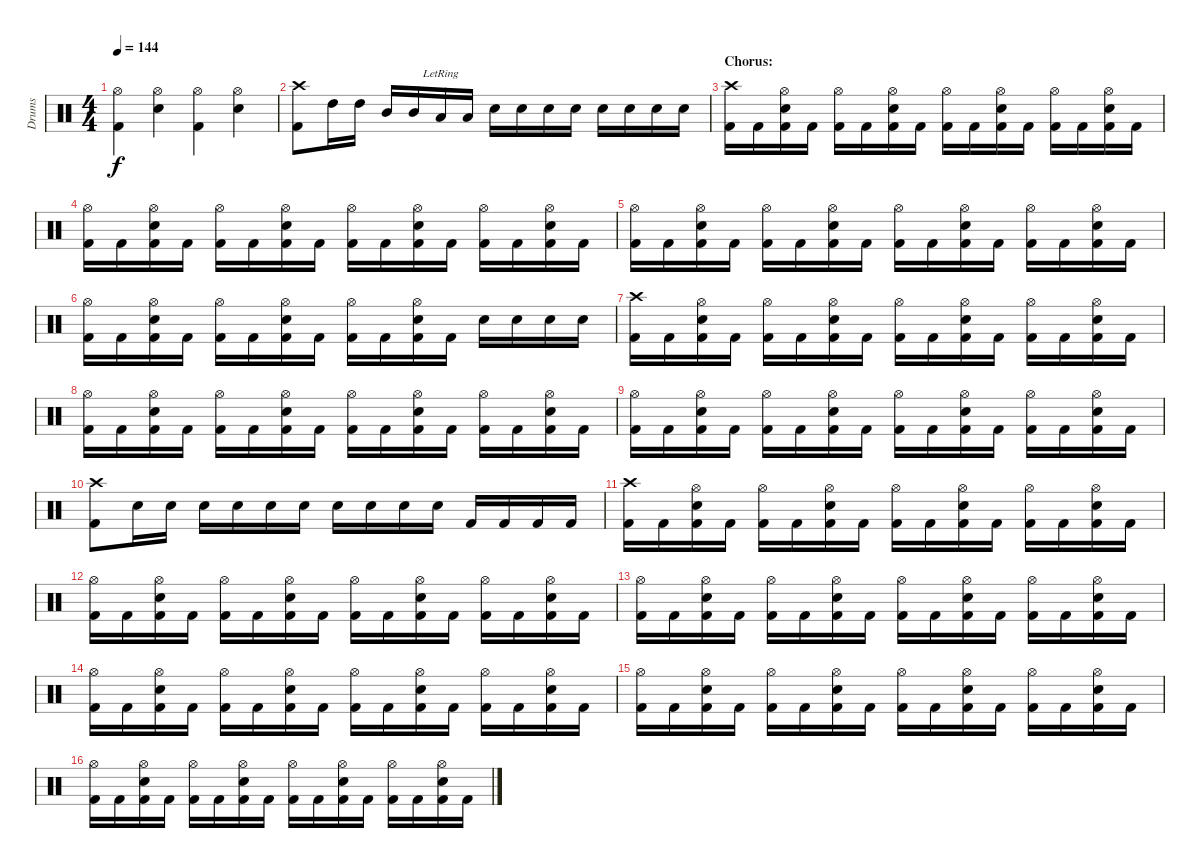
\track ("Drums" "Drums") {instrument percussion}
\staff {score}
\articulation defaults
\ts (4 4)
\tempo 144
\clef neutral
\ks c
("Hi-Hat (open)" "Kick (hit) 2").4{dy f} ("Hi-Hat (open)" "Snare (hit) 2").4 ("Hi-Hat (open)" "Kick (hit) 2").4 ("Hi-Hat (open)" "Snare (hit) 2").4 |
("Crash high (hit)" "Kick (hit) 2").8 "High Tom (hit)".16 "High Tom (hit)".16 "Mid Tom (hit)".16 "Mid Tom (hit)".16 "Low Tom (hit)"{lr}.16 "Low Tom (hit)".16 "Snare (hit) 2".16 "Snare (hit) 2".16 "Snare (hit) 2".16 "Snare (hit) 2".16 "Snare (hit) 2".16 "Snare (hit) 2".16 "Snare (hit) 2".16 "Snare (hit) 2".16 |
\section ("" "Chorus:")
("Crash high (hit)" "Kick (hit) 2").16 "Kick (hit) 2".16 ("Hi-Hat (open)" "Snare (hit) 2" "Kick (hit) 2").16 "Kick (hit) 2".16 ("Hi-Hat (open)" "Kick (hit) 2").16 "Kick (hit) 2".16 ("Hi-Hat (open)" "Snare (hit) 2" "Kick (hit) 2").16 "Kick (hit) 2".16 ("Hi-Hat (open)" "Kick (hit) 2").16 "Kick (hit) 2".16 ("Hi-Hat (open)" "Snare (hit) 2" "Kick (hit) 2").16 "Kick (hit) 2".16 ("Hi-Hat (open)" "Kick (hit) 2").16 "Kick (hit) 2".16 ("Hi-Hat (open)" "Snare (hit) 2" "Kick (hit) 2").16 "Kick (hit) 2".16 |
("Hi-Hat (open)" "Kick (hit) 2").16 "Kick (hit) 2".16 ("Hi-Hat (open)" "Snare (hit) 2" "Kick (hit) 2").16 "Kick (hit) 2".16 ("Hi-Hat (open)" "Kick (hit) 2").16 "Kick (hit) 2".16 ("Hi-Hat (open)" "Snare (hit) 2" "Kick (hit) 2").16 "Kick (hit) 2".16 ("Hi-Hat (open)" "Kick (hit) 2").16 "Kick (hit) 2".16 ("Hi-Hat (open)" "Snare (hit) 2" "Kick (hit) 2").16 "Kick (hit) 2".16 ("Hi-Hat (open)" "Kick (hit) 2").16 "Kick (hit) 2".16 ("Hi-Hat (open)" "Snare (hit) 2" "Kick (hit) 2").16 "Kick (hit) 2".16 |
("Hi-Hat (open)" "Kick (hit) 2").16 "Kick (hit) 2".16 ("Hi-Hat (open)" "Snare (hit) 2" "Kick (hit) 2").16 "Kick (hit) 2".16 ("Hi-Hat (open)" "Kick (hit) 2").16 "Kick (hit) 2".16 ("Hi-Hat (open)" "Snare (hit) 2" "Kick (hit) 2").16 "Kick (hit) 2".16 ("Hi-Hat (open)" "Kick (hit) 2").16 "Kick (hit) 2".16 ("Hi-Hat (open)" "Snare (hit) 2" "Kick (hit) 2").16 "Kick (hit) 2".16 ("Hi-Hat (open)" "Kick (hit) 2").16 "Kick (hit) 2".16 ("Hi-Hat (open)" "Snare (hit) 2" "Kick (hit) 2").16 "Kick (hit) 2".16 |
("Hi-Hat (open)" "Kick (hit) 2").16 "Kick (hit) 2".16 ("Hi-Hat (open)" "Snare (hit) 2" "Kick (hit) 2").16 "Kick (hit) 2".16 ("Hi-Hat (open)" "Kick (hit) 2").16 "Kick (hit) 2".16 ("Hi-Hat (open)" "Snare (hit) 2" "Kick (hit) 2").16 "Kick (hit) 2".16 ("Hi-Hat (open)" "Kick (hit) 2").16 "Kick (hit) 2".16 ("Hi-Hat (open)" "Snare (hit) 2" "Kick (hit) 2").16 "Kick (hit) 2".16 "Snare (hit) 2".16 "Snare (hit) 2".16 "Snare (hit) 2".16 "Snare (hit) 2".16 |
("Crash high (hit)" "Kick (hit) 2").16 "Kick (hit) 2".16 ("Hi-Hat (open)" "Snare (hit) 2" "Kick (hit) 2").16 "Kick (hit) 2".16 ("Hi-Hat (open)" "Kick (hit) 2").16 "Kick (hit) 2".16 ("Hi-Hat (open)" "Snare (hit) 2" "Kick (hit) 2").16 "Kick (hit) 2".16 ("Hi-Hat (open)" "Kick (hit) 2").16 "Kick (hit) 2".16 ("Hi-Hat (open)" "Snare (hit) 2" "Kick (hit) 2").16 "Kick (hit) 2".16 ("Hi-Hat (open)" "Kick (hit) 2").16 "Kick (hit) 2".16 ("Hi-Hat (open)" "Snare (hit) 2" "Kick (hit) 2").16 "Kick (hit) 2".16 |
("Hi-Hat (open)" "Kick (hit) 2").16 "Kick (hit) 2".16 ("Hi-Hat (open)" "Snare (hit) 2" "Kick (hit) 2").16 "Kick (hit) 2".16 ("Hi-Hat (open)" "Kick (hit) 2").16 "Kick (hit) 2".16 ("Hi-Hat (open)" "Snare (hit) 2" "Kick (hit) 2").16 "Kick (hit) 2".16 ("Hi-Hat (open)" "Kick (hit) 2").16 "Kick (hit) 2".16 ("Hi-Hat (open)" "Snare (hit) 2" "Kick (hit) 2").16 "Kick (hit) 2".16 ("Hi-Hat (open)" "Kick (hit) 2").16 "Kick (hit) 2".16 ("Hi-Hat (open)" "Snare (hit) 2" "Kick (hit) 2").16 "Kick (hit) 2".16 |
("Hi-Hat (open)" "Kick (hit) 2").16 "Kick (hit) 2".16 ("Hi-Hat (open)" "Snare (hit) 2" "Kick (hit) 2").16 "Kick (hit) 2".16 ("Hi-Hat (open)" "Kick (hit) 2").16 "Kick (hit) 2".16 ("Hi-Hat (open)" "Snare (hit) 2" "Kick (hit) 2").16 "Kick (hit) 2".16 ("Hi-Hat (open)" "Kick (hit) 2").16 "Kick (hit) 2".16 ("Hi-Hat (open)" "Snare (hit) 2" "Kick (hit) 2").16 "Kick (hit) 2".16 ("Hi-Hat (open)" "Kick (hit) 2").16 "Kick (hit) 2".16 ("Hi-Hat (open)" "Snare (hit) 2" "Kick (hit) 2").16 "Kick (hit) 2".16 |
("Crash high (hit)" "Kick (hit) 2").8 "Snare (hit) 2".16 "Snare (hit) 2".16 "Snare (hit) 2".16 "Snare (hit) 2".16 "Snare (hit) 2".16 "Snare (hit) 2".16 "Snare (hit) 2".16 "Snare (hit) 2".16 "Snare (hit) 2".16 "Snare (hit) 2".16 "Kick (hit) 2".16 "Kick (hit) 2".16 "Kick (hit) 2".16 "Kick (hit) 2".16 |
("Crash high (hit)" "Kick (hit) 2").16 "Kick (hit) 2".16 ("Hi-Hat (open)" "Snare (hit) 2" "Kick (hit) 2").16 "Kick (hit) 2".16 ("Hi-Hat (open)" "Kick (hit) 2").16 "Kick (hit) 2".16 ("Hi-Hat (open)" "Snare (hit) 2" "Kick (hit) 2").16 "Kick (hit) 2".16 ("Hi-Hat (open)" "Kick (hit) 2").16 "Kick (hit) 2".16 ("Hi-Hat (open)" "Snare (hit) 2" "Kick (hit) 2").16 "Kick (hit) 2".16 ("Hi-Hat (open)" "Kick (hit) 2").16 "Kick (hit) 2".16 ("Hi-Hat (open)" "Snare (hit) 2" "Kick (hit) 2").16 "Kick (hit) 2".16 |
("Hi-Hat (open)" "Kick (hit) 2").16 "Kick (hit) 2".16 ("Hi-Hat (open)" "Snare (hit) 2" "Kick (hit) 2").16 "Kick (hit) 2".16 ("Hi-Hat (open)" "Kick (hit) 2").16 "Kick (hit) 2".16 ("Hi-Hat (open)" "Snare (hit) 2" "Kick (hit) 2").16 "Kick (hit) 2".16 ("Hi-Hat (open)" "Kick (hit) 2").16 "Kick (hit) 2".16 ("Hi-Hat (open)" "Snare (hit) 2" "Kick (hit) 2").16 "Kick (hit) 2".16 ("Hi-Hat (open)" "Kick (hit) 2").16 "Kick (hit) 2".16 ("Hi-Hat (open)" "Snare (hit) 2" "Kick (hit) 2").16 "Kick (hit) 2".16 |
("Hi-Hat (open)" "Kick (hit) 2").16 "Kick (hit) 2".16 ("Hi-Hat (open)" "Snare (hit) 2" "Kick (hit) 2").16 "Kick (hit) 2".16 ("Hi-Hat (open)" "Kick (hit) 2").16 "Kick (hit) 2".16 ("Hi-Hat (open)" "Snare (hit) 2" "Kick (hit) 2").16 "Kick (hit) 2".16 ("Hi-Hat (open)" "Kick (hit) 2").16 "Kick (hit) 2".16 ("Hi-Hat (open)" "Snare (hit) 2" "Kick (hit) 2").16 "Kick (hit) 2".16 ("Hi-Hat (open)" "Kick (hit) 2").16 "Kick (hit) 2".16 ("Hi-Hat (open)" "Snare (hit) 2" "Kick (hit) 2").16 "Kick (hit) 2".16 |
("Hi-Hat (open)" "Kick (hit) 2").16 "Kick (hit) 2".16 ("Hi-Hat (open)" "Snare (hit) 2" "Kick (hit) 2").16 "Kick (hit) 2".16 ("Hi-Hat (open)" "Kick (hit) 2").16 "Kick (hit) 2".16 ("Hi-Hat (open)" "Snare (hit) 2" "Kick (hit) 2").16 "Kick (hit) 2".16 ("Hi-Hat (open)" "Kick (hit) 2").16 "Kick (hit) 2".16 ("Hi-Hat (open)" "Snare (hit) 2" "Kick (hit) 2").16 "Kick (hit) 2".16 ("Hi-Hat (open)" "Kick (hit) 2").16 "Kick (hit) 2".16 ("Hi-Hat (open)" "Snare (hit) 2" "Kick (hit) 2").16 "Kick (hit) 2".16 |
("Hi-Hat (open)" "Kick (hit) 2").16 "Kick (hit) 2".16 ("Hi-Hat (open)" "Snare (hit) 2" "Kick (hit) 2").16 "Kick (hit) 2".16 ("Hi-Hat (open)" "Kick (hit) 2").16 "Kick (hit) 2".16 ("Hi-Hat (open)" "Snare (hit) 2" "Kick (hit) 2").16 "Kick (hit) 2".16 ("Hi-Hat (open)" "Kick (hit) 2").16 "Kick (hit) 2".16 ("Hi-Hat (open)" "Snare (hit) 2" "Kick (hit) 2").16 "Kick (hit) 2".16 ("Hi-Hat (open)" "Kick (hit) 2").16 "Kick (hit) 2".16 ("Hi-Hat (open)" "Snare (hit) 2" "Kick (hit) 2").16 "Kick (hit) 2".16 |
("Hi-Hat (open)" "Kick (hit) 2").16 "Kick (hit) 2".16 ("Hi-Hat (open)" "Snare (hit) 2" "Kick (hit) 2").16 "Kick (hit) 2".16 ("Hi-Hat (open)" "Kick (hit) 2").16 "Kick (hit) 2".16 ("Hi-Hat (open)" "Snare (hit) 2" "Kick (hit) 2").16 "Kick (hit) 2".16 ("Hi-Hat (open)" "Kick (hit) 2").16 "Kick (hit) 2".16 ("Hi-Hat (open)" "Snare (hit) 2" "Kick (hit) 2").16 "Kick (hit) 2".16 ("Hi-Hat (open)" "Kick (hit) 2").16 "Kick (hit) 2".16 ("Hi-Hat (open)" "Snare (hit) 2" "Kick (hit) 2").16 "Kick (hit) 2".16
